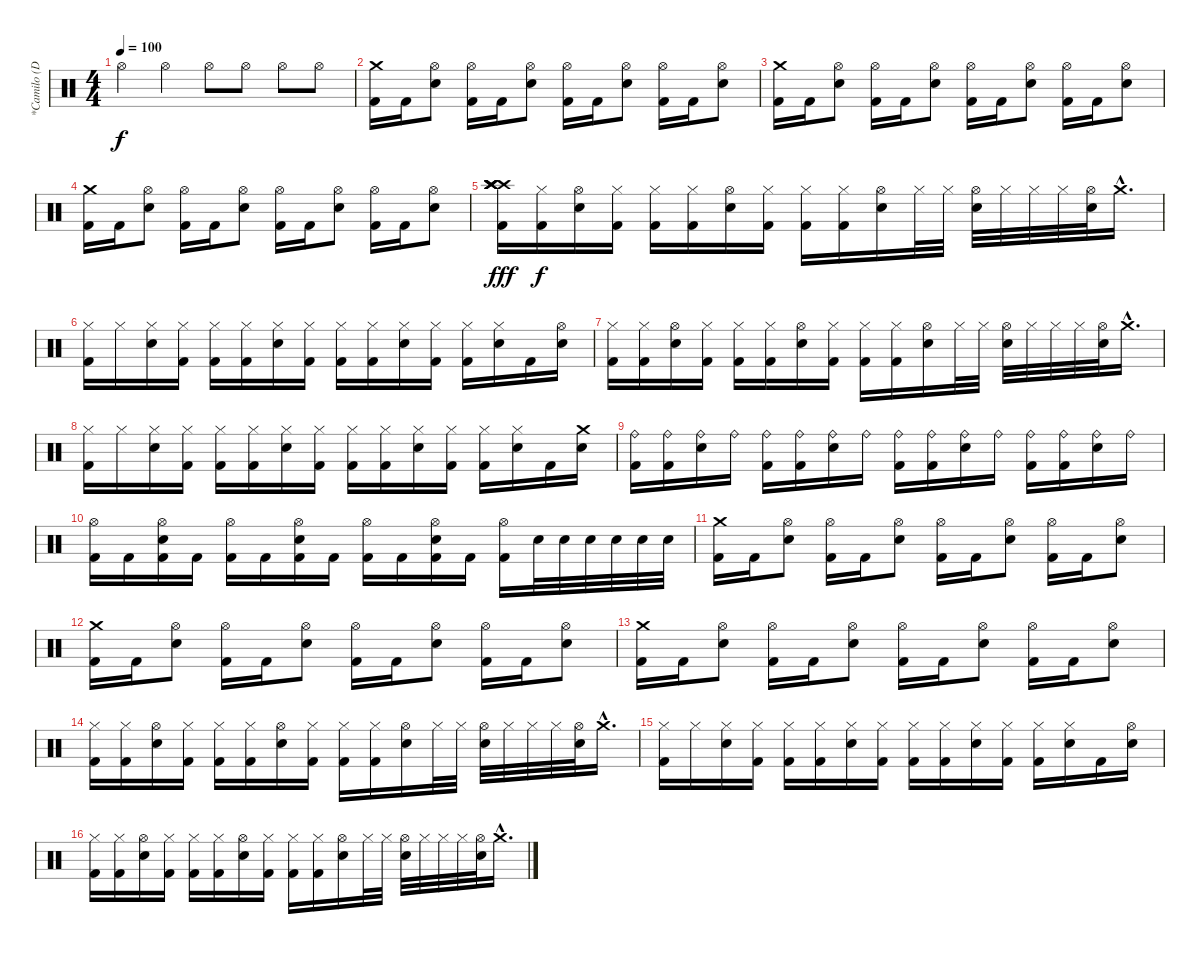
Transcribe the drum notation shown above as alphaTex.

\track ("*Camilo (Drums)" "*Camilo (D") {instrument percussion}
\staff {score}
\articulation defaults
\ts (4 4)
\tempo 100
\clef neutral
\ks c "Hi-Hat (open)".4{dy f} "Hi-Hat (open)".4 "Hi-Hat (open)".8 "Hi-Hat (open)".8 "Hi-Hat (open)".8 "Hi-Hat (open)".8
|
("Crash medium (hit)" "Kick (hit) 2").16 "Kick (hit) 2".16 ("Hi-Hat (open)" "Electric Snare (hit)").8 ("Hi-Hat (open)" "Kick (hit) 2").16 "Kick (hit) 2".16 ("Hi-Hat (open)" "Electric Snare (hit)").8 ("Hi-Hat (open)" "Kick (hit) 2").16 "Kick (hit) 2".16 ("Hi-Hat (open)" "Electric Snare (hit)").8 ("Hi-Hat (open)" "Kick (hit) 2").16 "Kick (hit) 2".16 ("Hi-Hat (open)" "Electric Snare (hit)").8 |
("Crash medium (hit)" "Kick (hit) 2").16 "Kick (hit) 2".16 ("Hi-Hat (open)" "Electric Snare (hit)").8 ("Hi-Hat (open)" "Kick (hit) 2").16 "Kick (hit) 2".16 ("Hi-Hat (open)" "Electric Snare (hit)").8 ("Hi-Hat (open)" "Kick (hit) 2").16 "Kick (hit) 2".16 ("Hi-Hat (open)" "Electric Snare (hit)").8 ("Hi-Hat (open)" "Kick (hit) 2").16 "Kick (hit) 2".16 ("Hi-Hat (open)" "Electric Snare (hit)").8 |
("Crash medium (hit)" "Kick (hit) 2").16 "Kick (hit) 2".16 ("Hi-Hat (open)" "Electric Snare (hit)").8 ("Hi-Hat (open)" "Kick (hit) 2").16 "Kick (hit) 2".16 ("Hi-Hat (open)" "Electric Snare (hit)").8 ("Hi-Hat (open)" "Kick (hit) 2").16 "Kick (hit) 2".16 ("Hi-Hat (open)" "Electric Snare (hit)").8 ("Hi-Hat (open)" "Kick (hit) 2").16 "Kick (hit) 2".16 ("Hi-Hat (open)" "Electric Snare (hit)").8 |
("Crash high (hit)" "Crash high (hit)" "Crash high (hit)" "Crash high (hit)" "Crash high (hit)" "Kick (hit) 2").16{dy fff} ("Hi-Hat (closed)" "Kick (hit) 2").16{dy f} ("Hi-Hat (open)" "Electric Snare (hit)").16 ("Hi-Hat (closed)" "Kick (hit) 2").16 ("Hi-Hat (closed)" "Kick (hit) 2").16 ("Hi-Hat (closed)" "Kick (hit) 2").16 ("Hi-Hat (open)" "Electric Snare (hit)").16 ("Hi-Hat (closed)" "Kick (hit) 2").16 ("Hi-Hat (closed)" "Kick (hit) 2").16 ("Hi-Hat (closed)" "Kick (hit) 2").16 ("Hi-Hat (open)" "Electric Snare (hit)").16 "Hi-Hat (closed)".32 "Hi-Hat (closed)".32 ("Hi-Hat (open)" "Electric Snare (hit)").32 "Hi-Hat (closed)".32 "Hi-Hat (closed)".32 "Hi-Hat (closed)".32 ("Hi-Hat (open)" "Electric Snare (hit)").32 "Crash medium (hit)"{hac}.16{d} |
("Hi-Hat (closed)" "Kick (hit) 2").16 "Hi-Hat (closed)".16 ("Hi-Hat (closed)" "Electric Snare (hit)").16 ("Hi-Hat (closed)" "Kick (hit) 2").16 ("Hi-Hat (closed)" "Kick (hit) 2").16 ("Hi-Hat (closed)" "Kick (hit) 2").16 ("Hi-Hat (closed)" "Electric Snare (hit)").16 ("Hi-Hat (closed)" "Kick (hit) 2").16 ("Hi-Hat (closed)" "Kick (hit) 2").16 ("Hi-Hat (closed)" "Kick (hit) 2").16 ("Hi-Hat (closed)" "Electric Snare (hit)").16 ("Hi-Hat (closed)" "Kick (hit) 2").16 ("Hi-Hat (closed)" "Kick (hit) 2").16 ("Hi-Hat (closed)" "Electric Snare (hit)").16 "Kick (hit) 2".16 ("Hi-Hat (open)" "Electric Snare (hit)").16 |
("Hi-Hat (closed)" "Kick (hit) 2").16 ("Hi-Hat (closed)" "Kick (hit) 2").16 ("Hi-Hat (open)" "Electric Snare (hit)").16 ("Hi-Hat (closed)" "Kick (hit) 2").16 ("Hi-Hat (closed)" "Kick (hit) 2").16 ("Hi-Hat (closed)" "Kick (hit) 2").16 ("Hi-Hat (open)" "Electric Snare (hit)").16 ("Hi-Hat (closed)" "Kick (hit) 2").16 ("Hi-Hat (closed)" "Kick (hit) 2").16 ("Hi-Hat (closed)" "Kick (hit) 2").16 ("Hi-Hat (open)" "Electric Snare (hit)").16 "Hi-Hat (closed)".32 "Hi-Hat (closed)".32 ("Hi-Hat (open)" "Electric Snare (hit)").32 "Hi-Hat (closed)".32 "Hi-Hat (closed)".32 "Hi-Hat (closed)".32 ("Hi-Hat (open)" "Electric Snare (hit)").32 "Crash medium (hit)"{hac}.16{d} |
("Hi-Hat (closed)" "Kick (hit) 2").16 "Hi-Hat (closed)".16 ("Hi-Hat (closed)" "Electric Snare (hit)").16 ("Hi-Hat (closed)" "Kick (hit) 2").16 ("Hi-Hat (closed)" "Kick (hit) 2").16 ("Hi-Hat (closed)" "Kick (hit) 2").16 ("Hi-Hat (closed)" "Electric Snare (hit)").16 ("Hi-Hat (closed)" "Kick (hit) 2").16 ("Hi-Hat (closed)" "Kick (hit) 2").16 ("Hi-Hat (closed)" "Kick (hit) 2").16 ("Hi-Hat (closed)" "Electric Snare (hit)").16 ("Hi-Hat (closed)" "Kick (hit) 2").16 ("Hi-Hat (closed)" "Kick (hit) 2").16 ("Hi-Hat (closed)" "Electric Snare (hit)").16 "Kick (hit) 2".16 ("Crash medium (hit)" "Electric Snare (hit)").16 |
("Ride (bell)" "Kick (hit) 2").16 ("Ride (bell)" "Kick (hit) 2").16 ("Ride (bell)" "Electric Snare (hit)").16 "Ride (bell)".16 ("Ride (bell)" "Kick (hit) 2").16 ("Ride (bell)" "Kick (hit) 2").16 ("Ride (bell)" "Electric Snare (hit)").16 "Ride (bell)".16 ("Ride (bell)" "Kick (hit) 2").16 ("Ride (bell)" "Kick (hit) 2").16 ("Ride (bell)" "Electric Snare (hit)").16 "Ride (bell)".16 ("Ride (bell)" "Kick (hit) 2").16 ("Ride (bell)" "Kick (hit) 2").16 ("Ride (bell)" "Electric Snare (hit)").16 "Ride (bell)".16 |
("Hi-Hat (open)" "Kick (hit) 2").16 "Kick (hit) 2".16 ("Hi-Hat (open)" "Electric Snare (hit)" "Kick (hit) 2").16 "Kick (hit) 2".16 ("Hi-Hat (open)" "Kick (hit) 2").16 "Kick (hit) 2".16 ("Hi-Hat (open)" "Electric Snare (hit)" "Kick (hit) 2").16 "Kick (hit) 2".16 ("Hi-Hat (open)" "Kick (hit) 2").16 "Kick (hit) 2".16 ("Hi-Hat (open)" "Electric Snare (hit)" "Kick (hit) 2").16 "Kick (hit) 2".16 ("Hi-Hat (open)" "Kick (hit) 2").16 "Electric Snare (hit)".32 "Electric Snare (hit)".32 "Electric Snare (hit)".32 "Electric Snare (hit)".32 "Electric Snare (hit)".32 "Electric Snare (hit)".32 |
("Crash medium (hit)" "Kick (hit) 2").16 "Kick (hit) 2".16 ("Hi-Hat (open)" "Electric Snare (hit)").8 ("Hi-Hat (open)" "Kick (hit) 2").16 "Kick (hit) 2".16 ("Hi-Hat (open)" "Electric Snare (hit)").8 ("Hi-Hat (open)" "Kick (hit) 2").16 "Kick (hit) 2".16 ("Hi-Hat (open)" "Electric Snare (hit)").8 ("Hi-Hat (open)" "Kick (hit) 2").16 "Kick (hit) 2".16 ("Hi-Hat (open)" "Electric Snare (hit)").8 |
("Crash medium (hit)" "Kick (hit) 2").16 "Kick (hit) 2".16 ("Hi-Hat (open)" "Electric Snare (hit)").8 ("Hi-Hat (open)" "Kick (hit) 2").16 "Kick (hit) 2".16 ("Hi-Hat (open)" "Electric Snare (hit)").8 ("Hi-Hat (open)" "Kick (hit) 2").16 "Kick (hit) 2".16 ("Hi-Hat (open)" "Electric Snare (hit)").8 ("Hi-Hat (open)" "Kick (hit) 2").16 "Kick (hit) 2".16 ("Hi-Hat (open)" "Electric Snare (hit)").8 |
("Crash medium (hit)" "Kick (hit) 2").16 "Kick (hit) 2".16 ("Hi-Hat (open)" "Electric Snare (hit)").8 ("Hi-Hat (open)" "Kick (hit) 2").16 "Kick (hit) 2".16 ("Hi-Hat (open)" "Electric Snare (hit)").8 ("Hi-Hat (open)" "Kick (hit) 2").16 "Kick (hit) 2".16 ("Hi-Hat (open)" "Electric Snare (hit)").8 ("Hi-Hat (open)" "Kick (hit) 2").16 "Kick (hit) 2".16 ("Hi-Hat (open)" "Electric Snare (hit)").8 |
("Hi-Hat (closed)" "Kick (hit) 2").16 ("Hi-Hat (closed)" "Kick (hit) 2").16 ("Hi-Hat (open)" "Electric Snare (hit)").16 ("Hi-Hat (closed)" "Kick (hit) 2").16 ("Hi-Hat (closed)" "Kick (hit) 2").16 ("Hi-Hat (closed)" "Kick (hit) 2").16 ("Hi-Hat (open)" "Electric Snare (hit)").16 ("Hi-Hat (closed)" "Kick (hit) 2").16 ("Hi-Hat (closed)" "Kick (hit) 2").16 ("Hi-Hat (closed)" "Kick (hit) 2").16 ("Hi-Hat (open)" "Electric Snare (hit)").16 "Hi-Hat (closed)".32 "Hi-Hat (closed)".32 ("Hi-Hat (open)" "Electric Snare (hit)").32 "Hi-Hat (closed)".32 "Hi-Hat (closed)".32 "Hi-Hat (closed)".32 ("Hi-Hat (open)" "Electric Snare (hit)").32 "Crash medium (hit)"{hac}.16{d} |
("Hi-Hat (closed)" "Kick (hit) 2").16 "Hi-Hat (closed)".16 ("Hi-Hat (closed)" "Electric Snare (hit)").16 ("Hi-Hat (closed)" "Kick (hit) 2").16 ("Hi-Hat (closed)" "Kick (hit) 2").16 ("Hi-Hat (closed)" "Kick (hit) 2").16 ("Hi-Hat (closed)" "Electric Snare (hit)").16 ("Hi-Hat (closed)" "Kick (hit) 2").16 ("Hi-Hat (closed)" "Kick (hit) 2").16 ("Hi-Hat (closed)" "Kick (hit) 2").16 ("Hi-Hat (closed)" "Electric Snare (hit)").16 ("Hi-Hat (closed)" "Kick (hit) 2").16 ("Hi-Hat (closed)" "Kick (hit) 2").16 ("Hi-Hat (closed)" "Electric Snare (hit)").16 "Kick (hit) 2".16 ("Hi-Hat (open)" "Electric Snare (hit)").16 |
("Hi-Hat (closed)" "Kick (hit) 2").16 ("Hi-Hat (closed)" "Kick (hit) 2").16 ("Hi-Hat (open)" "Electric Snare (hit)").16 ("Hi-Hat (closed)" "Kick (hit) 2").16 ("Hi-Hat (closed)" "Kick (hit) 2").16 ("Hi-Hat (closed)" "Kick (hit) 2").16 ("Hi-Hat (open)" "Electric Snare (hit)").16 ("Hi-Hat (closed)" "Kick (hit) 2").16 ("Hi-Hat (closed)" "Kick (hit) 2").16 ("Hi-Hat (closed)" "Kick (hit) 2").16 ("Hi-Hat (open)" "Electric Snare (hit)").16 "Hi-Hat (closed)".32 "Hi-Hat (closed)".32 ("Hi-Hat (open)" "Electric Snare (hit)").32 "Hi-Hat (closed)".32 "Hi-Hat (closed)".32 "Hi-Hat (closed)".32 ("Hi-Hat (open)" "Electric Snare (hit)").32 "Crash medium (hit)"{hac}.16{d}
